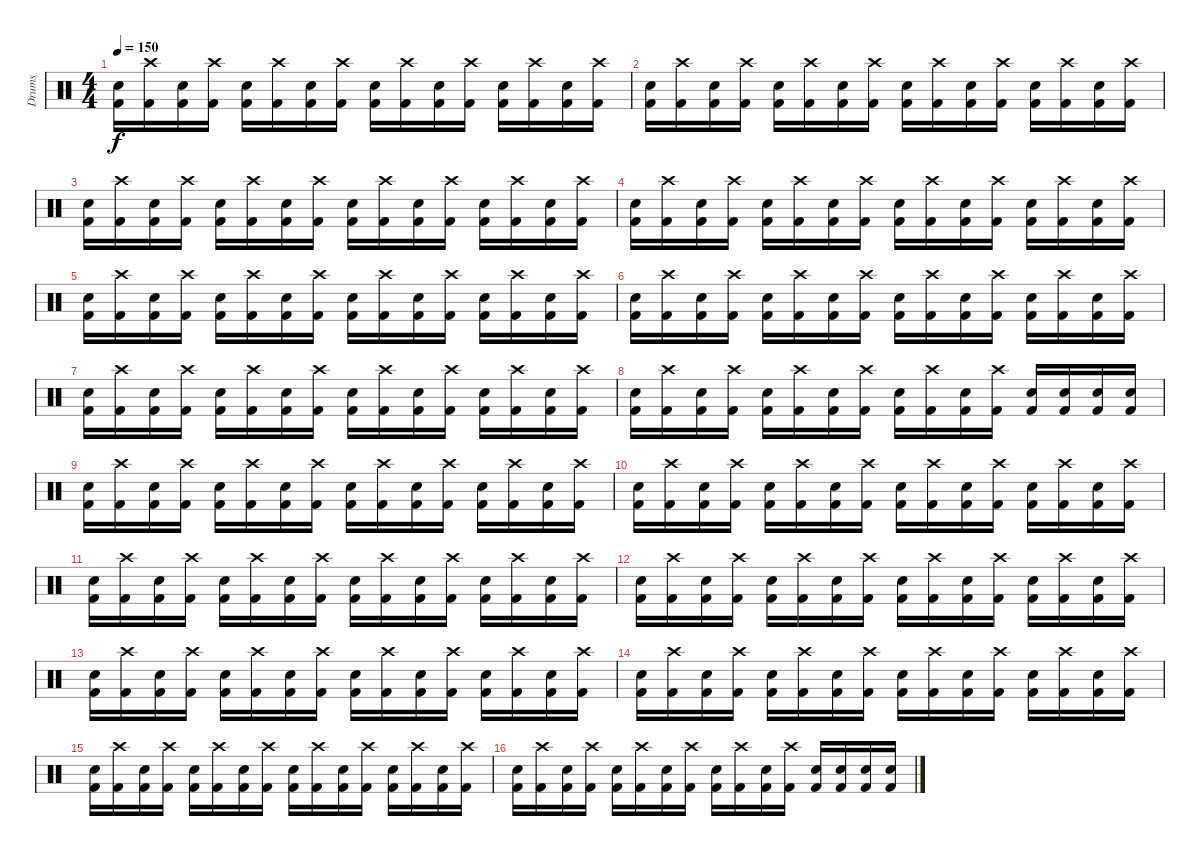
\track ("Drums" "Drums") {instrument percussion}
\staff {score}
\articulation defaults
\ts (4 4)
\tempo 150
\clef neutral
\ks c
("Snare (hit) 2" "Kick (hit) 2").16{dy f} ("Crash high (hit)" "Kick (hit) 2").16 ("Snare (hit) 2" "Kick (hit) 2").16 ("Crash high (hit)" "Kick (hit) 2").16 ("Snare (hit) 2" "Kick (hit) 2").16 ("Crash high (hit)" "Kick (hit) 2").16 ("Snare (hit) 2" "Kick (hit) 2").16 ("Crash high (hit)" "Kick (hit) 2").16 ("Snare (hit) 2" "Kick (hit) 2").16 ("Crash high (hit)" "Kick (hit) 2").16 ("Snare (hit) 2" "Kick (hit) 2").16 ("Crash high (hit)" "Kick (hit) 2").16 ("Snare (hit) 2" "Kick (hit) 2").16 ("Crash high (hit)" "Kick (hit) 2").16 ("Snare (hit) 2" "Kick (hit) 2").16 ("Crash high (hit)" "Kick (hit) 2").16 |
("Snare (hit) 2" "Kick (hit) 2").16 ("Crash high (hit)" "Kick (hit) 2").16 ("Snare (hit) 2" "Kick (hit) 2").16 ("Crash high (hit)" "Kick (hit) 2").16 ("Snare (hit) 2" "Kick (hit) 2").16 ("Crash high (hit)" "Kick (hit) 2").16 ("Snare (hit) 2" "Kick (hit) 2").16 ("Crash high (hit)" "Kick (hit) 2").16 ("Snare (hit) 2" "Kick (hit) 2").16 ("Crash high (hit)" "Kick (hit) 2").16 ("Snare (hit) 2" "Kick (hit) 2").16 ("Crash high (hit)" "Kick (hit) 2").16 ("Snare (hit) 2" "Kick (hit) 2").16 ("Crash high (hit)" "Kick (hit) 2").16 ("Snare (hit) 2" "Kick (hit) 2").16 ("Crash high (hit)" "Kick (hit) 2").16 |
("Snare (hit) 2" "Kick (hit) 2").16 ("Crash high (hit)" "Kick (hit) 2").16 ("Snare (hit) 2" "Kick (hit) 2").16 ("Crash high (hit)" "Kick (hit) 2").16 ("Snare (hit) 2" "Kick (hit) 2").16 ("Crash high (hit)" "Kick (hit) 2").16 ("Snare (hit) 2" "Kick (hit) 2").16 ("Crash high (hit)" "Kick (hit) 2").16 ("Snare (hit) 2" "Kick (hit) 2").16 ("Crash high (hit)" "Kick (hit) 2").16 ("Snare (hit) 2" "Kick (hit) 2").16 ("Crash high (hit)" "Kick (hit) 2").16 ("Snare (hit) 2" "Kick (hit) 2").16 ("Crash high (hit)" "Kick (hit) 2").16 ("Snare (hit) 2" "Kick (hit) 2").16 ("Crash high (hit)" "Kick (hit) 2").16 |
("Snare (hit) 2" "Kick (hit) 2").16 ("Crash high (hit)" "Kick (hit) 2").16 ("Snare (hit) 2" "Kick (hit) 2").16 ("Crash high (hit)" "Kick (hit) 2").16 ("Snare (hit) 2" "Kick (hit) 2").16 ("Crash high (hit)" "Kick (hit) 2").16 ("Snare (hit) 2" "Kick (hit) 2").16 ("Crash high (hit)" "Kick (hit) 2").16 ("Snare (hit) 2" "Kick (hit) 2").16 ("Crash high (hit)" "Kick (hit) 2").16 ("Snare (hit) 2" "Kick (hit) 2").16 ("Crash high (hit)" "Kick (hit) 2").16 ("Snare (hit) 2" "Kick (hit) 2").16 ("Crash high (hit)" "Kick (hit) 2").16 ("Snare (hit) 2" "Kick (hit) 2").16 ("Crash high (hit)" "Kick (hit) 2").16 |
("Snare (hit) 2" "Kick (hit) 2").16 ("Crash high (hit)" "Kick (hit) 2").16 ("Snare (hit) 2" "Kick (hit) 2").16 ("Crash high (hit)" "Kick (hit) 2").16 ("Snare (hit) 2" "Kick (hit) 2").16 ("Crash high (hit)" "Kick (hit) 2").16 ("Snare (hit) 2" "Kick (hit) 2").16 ("Crash high (hit)" "Kick (hit) 2").16 ("Snare (hit) 2" "Kick (hit) 2").16 ("Crash high (hit)" "Kick (hit) 2").16 ("Snare (hit) 2" "Kick (hit) 2").16 ("Crash high (hit)" "Kick (hit) 2").16 ("Snare (hit) 2" "Kick (hit) 2").16 ("Crash high (hit)" "Kick (hit) 2").16 ("Snare (hit) 2" "Kick (hit) 2").16 ("Crash high (hit)" "Kick (hit) 2").16 |
("Snare (hit) 2" "Kick (hit) 2").16 ("Crash high (hit)" "Kick (hit) 2").16 ("Snare (hit) 2" "Kick (hit) 2").16 ("Crash high (hit)" "Kick (hit) 2").16 ("Snare (hit) 2" "Kick (hit) 2").16 ("Crash high (hit)" "Kick (hit) 2").16 ("Snare (hit) 2" "Kick (hit) 2").16 ("Crash high (hit)" "Kick (hit) 2").16 ("Snare (hit) 2" "Kick (hit) 2").16 ("Crash high (hit)" "Kick (hit) 2").16 ("Snare (hit) 2" "Kick (hit) 2").16 ("Crash high (hit)" "Kick (hit) 2").16 ("Snare (hit) 2" "Kick (hit) 2").16 ("Crash high (hit)" "Kick (hit) 2").16 ("Snare (hit) 2" "Kick (hit) 2").16 ("Crash high (hit)" "Kick (hit) 2").16 |
("Snare (hit) 2" "Kick (hit) 2").16 ("Crash high (hit)" "Kick (hit) 2").16 ("Snare (hit) 2" "Kick (hit) 2").16 ("Crash high (hit)" "Kick (hit) 2").16 ("Snare (hit) 2" "Kick (hit) 2").16 ("Crash high (hit)" "Kick (hit) 2").16 ("Snare (hit) 2" "Kick (hit) 2").16 ("Crash high (hit)" "Kick (hit) 2").16 ("Snare (hit) 2" "Kick (hit) 2").16 ("Crash high (hit)" "Kick (hit) 2").16 ("Snare (hit) 2" "Kick (hit) 2").16 ("Crash high (hit)" "Kick (hit) 2").16 ("Snare (hit) 2" "Kick (hit) 2").16 ("Crash high (hit)" "Kick (hit) 2").16 ("Snare (hit) 2" "Kick (hit) 2").16 ("Crash high (hit)" "Kick (hit) 2").16 |
("Snare (hit) 2" "Kick (hit) 2").16 ("Crash high (hit)" "Kick (hit) 2").16 ("Snare (hit) 2" "Kick (hit) 2").16 ("Crash high (hit)" "Kick (hit) 2").16 ("Snare (hit) 2" "Kick (hit) 2").16 ("Crash high (hit)" "Kick (hit) 2").16 ("Snare (hit) 2" "Kick (hit) 2").16 ("Crash high (hit)" "Kick (hit) 2").16 ("Snare (hit) 2" "Kick (hit) 2").16 ("Crash high (hit)" "Kick (hit) 2").16 ("Snare (hit) 2" "Kick (hit) 2").16 ("Crash high (hit)" "Kick (hit) 2").16 ("Snare (hit) 2" "Kick (hit) 2").16 ("Snare (hit) 2" "Kick (hit) 2").16 ("Snare (hit) 2" "Kick (hit) 2").16 ("Snare (hit) 2" "Kick (hit) 2").16 |
("Snare (hit) 2" "Kick (hit) 2").16 ("Crash high (hit)" "Kick (hit) 2").16 ("Snare (hit) 2" "Kick (hit) 2").16 ("Crash high (hit)" "Kick (hit) 2").16 ("Snare (hit) 2" "Kick (hit) 2").16 ("Crash high (hit)" "Kick (hit) 2").16 ("Snare (hit) 2" "Kick (hit) 2").16 ("Crash high (hit)" "Kick (hit) 2").16 ("Snare (hit) 2" "Kick (hit) 2").16 ("Crash high (hit)" "Kick (hit) 2").16 ("Snare (hit) 2" "Kick (hit) 2").16 ("Crash high (hit)" "Kick (hit) 2").16 ("Snare (hit) 2" "Kick (hit) 2").16 ("Crash high (hit)" "Kick (hit) 2").16 ("Snare (hit) 2" "Kick (hit) 2").16 ("Crash high (hit)" "Kick (hit) 2").16 |
("Snare (hit) 2" "Kick (hit) 2").16 ("Crash high (hit)" "Kick (hit) 2").16 ("Snare (hit) 2" "Kick (hit) 2").16 ("Crash high (hit)" "Kick (hit) 2").16 ("Snare (hit) 2" "Kick (hit) 2").16 ("Crash high (hit)" "Kick (hit) 2").16 ("Snare (hit) 2" "Kick (hit) 2").16 ("Crash high (hit)" "Kick (hit) 2").16 ("Snare (hit) 2" "Kick (hit) 2").16 ("Crash high (hit)" "Kick (hit) 2").16 ("Snare (hit) 2" "Kick (hit) 2").16 ("Crash high (hit)" "Kick (hit) 2").16 ("Snare (hit) 2" "Kick (hit) 2").16 ("Crash high (hit)" "Kick (hit) 2").16 ("Snare (hit) 2" "Kick (hit) 2").16 ("Crash high (hit)" "Kick (hit) 2").16 |
("Snare (hit) 2" "Kick (hit) 2").16 ("Crash high (hit)" "Kick (hit) 2").16 ("Snare (hit) 2" "Kick (hit) 2").16 ("Crash high (hit)" "Kick (hit) 2").16 ("Snare (hit) 2" "Kick (hit) 2").16 ("Crash high (hit)" "Kick (hit) 2").16 ("Snare (hit) 2" "Kick (hit) 2").16 ("Crash high (hit)" "Kick (hit) 2").16 ("Snare (hit) 2" "Kick (hit) 2").16 ("Crash high (hit)" "Kick (hit) 2").16 ("Snare (hit) 2" "Kick (hit) 2").16 ("Crash high (hit)" "Kick (hit) 2").16 ("Snare (hit) 2" "Kick (hit) 2").16 ("Crash high (hit)" "Kick (hit) 2").16 ("Snare (hit) 2" "Kick (hit) 2").16 ("Crash high (hit)" "Kick (hit) 2").16 |
("Snare (hit) 2" "Kick (hit) 2").16 ("Crash high (hit)" "Kick (hit) 2").16 ("Snare (hit) 2" "Kick (hit) 2").16 ("Crash high (hit)" "Kick (hit) 2").16 ("Snare (hit) 2" "Kick (hit) 2").16 ("Crash high (hit)" "Kick (hit) 2").16 ("Snare (hit) 2" "Kick (hit) 2").16 ("Crash high (hit)" "Kick (hit) 2").16 ("Snare (hit) 2" "Kick (hit) 2").16 ("Crash high (hit)" "Kick (hit) 2").16 ("Snare (hit) 2" "Kick (hit) 2").16 ("Crash high (hit)" "Kick (hit) 2").16 ("Snare (hit) 2" "Kick (hit) 2").16 ("Crash high (hit)" "Kick (hit) 2").16 ("Snare (hit) 2" "Kick (hit) 2").16 ("Crash high (hit)" "Kick (hit) 2").16 |
("Snare (hit) 2" "Kick (hit) 2").16 ("Crash high (hit)" "Kick (hit) 2").16 ("Snare (hit) 2" "Kick (hit) 2").16 ("Crash high (hit)" "Kick (hit) 2").16 ("Snare (hit) 2" "Kick (hit) 2").16 ("Crash high (hit)" "Kick (hit) 2").16 ("Snare (hit) 2" "Kick (hit) 2").16 ("Crash high (hit)" "Kick (hit) 2").16 ("Snare (hit) 2" "Kick (hit) 2").16 ("Crash high (hit)" "Kick (hit) 2").16 ("Snare (hit) 2" "Kick (hit) 2").16 ("Crash high (hit)" "Kick (hit) 2").16 ("Snare (hit) 2" "Kick (hit) 2").16 ("Crash high (hit)" "Kick (hit) 2").16 ("Snare (hit) 2" "Kick (hit) 2").16 ("Crash high (hit)" "Kick (hit) 2").16 |
("Snare (hit) 2" "Kick (hit) 2").16 ("Crash high (hit)" "Kick (hit) 2").16 ("Snare (hit) 2" "Kick (hit) 2").16 ("Crash high (hit)" "Kick (hit) 2").16 ("Snare (hit) 2" "Kick (hit) 2").16 ("Crash high (hit)" "Kick (hit) 2").16 ("Snare (hit) 2" "Kick (hit) 2").16 ("Crash high (hit)" "Kick (hit) 2").16 ("Snare (hit) 2" "Kick (hit) 2").16 ("Crash high (hit)" "Kick (hit) 2").16 ("Snare (hit) 2" "Kick (hit) 2").16 ("Crash high (hit)" "Kick (hit) 2").16 ("Snare (hit) 2" "Kick (hit) 2").16 ("Crash high (hit)" "Kick (hit) 2").16 ("Snare (hit) 2" "Kick (hit) 2").16 ("Crash high (hit)" "Kick (hit) 2").16 |
("Snare (hit) 2" "Kick (hit) 2").16 ("Crash high (hit)" "Kick (hit) 2").16 ("Snare (hit) 2" "Kick (hit) 2").16 ("Crash high (hit)" "Kick (hit) 2").16 ("Snare (hit) 2" "Kick (hit) 2").16 ("Crash high (hit)" "Kick (hit) 2").16 ("Snare (hit) 2" "Kick (hit) 2").16 ("Crash high (hit)" "Kick (hit) 2").16 ("Snare (hit) 2" "Kick (hit) 2").16 ("Crash high (hit)" "Kick (hit) 2").16 ("Snare (hit) 2" "Kick (hit) 2").16 ("Crash high (hit)" "Kick (hit) 2").16 ("Snare (hit) 2" "Kick (hit) 2").16 ("Crash high (hit)" "Kick (hit) 2").16 ("Snare (hit) 2" "Kick (hit) 2").16 ("Crash high (hit)" "Kick (hit) 2").16 |
("Snare (hit) 2" "Kick (hit) 2").16 ("Crash high (hit)" "Kick (hit) 2").16 ("Snare (hit) 2" "Kick (hit) 2").16 ("Crash high (hit)" "Kick (hit) 2").16 ("Snare (hit) 2" "Kick (hit) 2").16 ("Crash high (hit)" "Kick (hit) 2").16 ("Snare (hit) 2" "Kick (hit) 2").16 ("Crash high (hit)" "Kick (hit) 2").16 ("Snare (hit) 2" "Kick (hit) 2").16 ("Crash high (hit)" "Kick (hit) 2").16 ("Snare (hit) 2" "Kick (hit) 2").16 ("Crash high (hit)" "Kick (hit) 2").16 ("Snare (hit) 2" "Kick (hit) 2").16 ("Snare (hit) 2" "Kick (hit) 2").16 ("Snare (hit) 2" "Kick (hit) 2").16 ("Snare (hit) 2" "Kick (hit) 2").16
